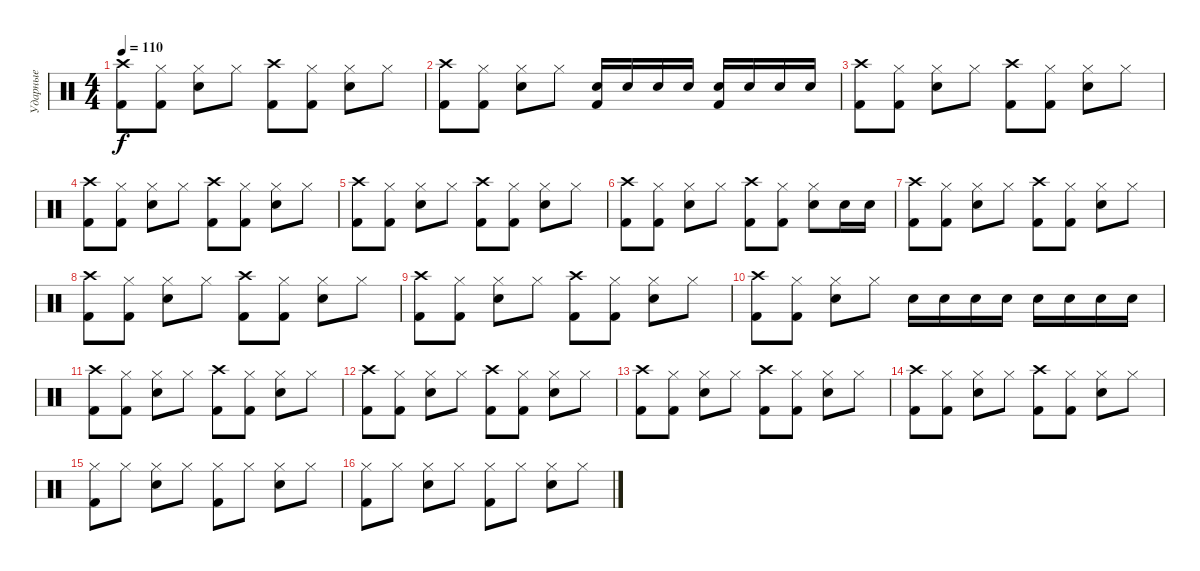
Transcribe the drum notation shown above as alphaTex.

\track ("Ударные" "Ударные") {instrument percussion}
\staff {score}
\articulation defaults
\ts (4 4)
\tempo 110
\clef neutral
\ks c
("Crash high (hit)" "Kick (hit) 2").8{dy f} ("Hi-Hat (closed)" "Kick (hit) 2").8 ("Hi-Hat (closed)" "Snare (hit) 2").8 "Hi-Hat (closed)".8 ("Crash high (hit)" "Kick (hit) 2").8 ("Hi-Hat (closed)" "Kick (hit) 2").8 ("Hi-Hat (closed)" "Snare (hit) 2").8 "Hi-Hat (closed)".8 |
("Crash high (hit)" "Kick (hit) 2").8 ("Hi-Hat (closed)" "Kick (hit) 2").8 ("Hi-Hat (closed)" "Snare (hit) 2").8 "Hi-Hat (closed)".8 ("Snare (hit) 2" "Kick (hit) 2").16 "Snare (hit) 2".16 "Snare (hit) 2".16 "Snare (hit) 2".16 ("Snare (hit) 2" "Kick (hit) 2").16 "Snare (hit) 2".16 "Snare (hit) 2".16 "Snare (hit) 2".16 |
("Crash high (hit)" "Kick (hit) 2").8 ("Hi-Hat (closed)" "Kick (hit) 2").8 ("Hi-Hat (closed)" "Snare (hit) 2").8 "Hi-Hat (closed)".8 ("Crash high (hit)" "Kick (hit) 2").8 ("Hi-Hat (closed)" "Kick (hit) 2").8 ("Hi-Hat (closed)" "Snare (hit) 2").8 "Hi-Hat (closed)".8 |
("Crash high (hit)" "Kick (hit) 2").8 ("Hi-Hat (closed)" "Kick (hit) 2").8 ("Hi-Hat (closed)" "Snare (hit) 2").8 "Hi-Hat (closed)".8 ("Crash high (hit)" "Kick (hit) 2").8 ("Hi-Hat (closed)" "Kick (hit) 2").8 ("Hi-Hat (closed)" "Snare (hit) 2").8 "Hi-Hat (closed)".8 |
("Crash high (hit)" "Kick (hit) 2").8 ("Hi-Hat (closed)" "Kick (hit) 2").8 ("Hi-Hat (closed)" "Snare (hit) 2").8 "Hi-Hat (closed)".8 ("Crash high (hit)" "Kick (hit) 2").8 ("Hi-Hat (closed)" "Kick (hit) 2").8 ("Hi-Hat (closed)" "Snare (hit) 2").8 "Hi-Hat (closed)".8 |
("Crash high (hit)" "Kick (hit) 2").8 ("Hi-Hat (closed)" "Kick (hit) 2").8 ("Hi-Hat (closed)" "Snare (hit) 2").8 "Hi-Hat (closed)".8 ("Crash high (hit)" "Kick (hit) 2").8 ("Hi-Hat (closed)" "Kick (hit) 2").8 ("Hi-Hat (closed)" "Snare (hit) 2").8 "Snare (hit) 2".16 "Snare (hit) 2".16 |
("Crash high (hit)" "Kick (hit) 2").8 ("Hi-Hat (closed)" "Kick (hit) 2").8 ("Hi-Hat (closed)" "Snare (hit) 2").8 "Hi-Hat (closed)".8 ("Crash high (hit)" "Kick (hit) 2").8 ("Hi-Hat (closed)" "Kick (hit) 2").8 ("Hi-Hat (closed)" "Snare (hit) 2").8 "Hi-Hat (closed)".8 |
("Crash high (hit)" "Kick (hit) 2").8 ("Hi-Hat (closed)" "Kick (hit) 2").8 ("Hi-Hat (closed)" "Snare (hit) 2").8 "Hi-Hat (closed)".8 ("Crash high (hit)" "Kick (hit) 2").8 ("Hi-Hat (closed)" "Kick (hit) 2").8 ("Hi-Hat (closed)" "Snare (hit) 2").8 "Hi-Hat (closed)".8 |
("Crash high (hit)" "Kick (hit) 2").8 ("Hi-Hat (closed)" "Kick (hit) 2").8 ("Hi-Hat (closed)" "Snare (hit) 2").8 "Hi-Hat (closed)".8 ("Crash high (hit)" "Kick (hit) 2").8 ("Hi-Hat (closed)" "Kick (hit) 2").8 ("Hi-Hat (closed)" "Snare (hit) 2").8 "Hi-Hat (closed)".8 |
("Crash high (hit)" "Kick (hit) 2").8 ("Hi-Hat (closed)" "Kick (hit) 2").8 ("Hi-Hat (closed)" "Snare (hit) 2").8 "Hi-Hat (closed)".8 "Snare (hit) 2".16 "Snare (hit) 2".16 "Snare (hit) 2".16 "Snare (hit) 2".16 "Snare (hit) 2".16 "Snare (hit) 2".16 "Snare (hit) 2".16 "Snare (hit) 2".16 |
("Crash high (hit)" "Kick (hit) 2").8 ("Hi-Hat (closed)" "Kick (hit) 2").8 ("Hi-Hat (closed)" "Snare (hit) 2").8 "Hi-Hat (closed)".8 ("Crash high (hit)" "Kick (hit) 2").8 ("Hi-Hat (closed)" "Kick (hit) 2").8 ("Hi-Hat (closed)" "Snare (hit) 2").8 "Hi-Hat (closed)".8 |
("Crash high (hit)" "Kick (hit) 2").8 ("Hi-Hat (closed)" "Kick (hit) 2").8 ("Hi-Hat (closed)" "Snare (hit) 2").8 "Hi-Hat (closed)".8 ("Crash high (hit)" "Kick (hit) 2").8 ("Hi-Hat (closed)" "Kick (hit) 2").8 ("Hi-Hat (closed)" "Snare (hit) 2").8 "Hi-Hat (closed)".8 |
("Crash high (hit)" "Kick (hit) 2").8 ("Hi-Hat (closed)" "Kick (hit) 2").8 ("Hi-Hat (closed)" "Snare (hit) 2").8 "Hi-Hat (closed)".8 ("Crash high (hit)" "Kick (hit) 2").8 ("Hi-Hat (closed)" "Kick (hit) 2").8 ("Hi-Hat (closed)" "Snare (hit) 2").8 "Hi-Hat (closed)".8 |
("Crash high (hit)" "Kick (hit) 2").8 ("Hi-Hat (closed)" "Kick (hit) 2").8 ("Hi-Hat (closed)" "Snare (hit) 2").8 "Hi-Hat (closed)".8 ("Crash high (hit)" "Kick (hit) 2").8 ("Hi-Hat (closed)" "Kick (hit) 2").8 ("Hi-Hat (closed)" "Snare (hit) 2").8 "Hi-Hat (closed)".8 |
("Hi-Hat (closed)" "Kick (hit) 2").8{volume 11} "Hi-Hat (closed)".8 ("Hi-Hat (closed)" "Snare (hit) 2").8 "Hi-Hat (closed)".8 ("Hi-Hat (closed)" "Kick (hit) 2").8 "Hi-Hat (closed)".8 ("Hi-Hat (closed)" "Snare (hit) 2").8 "Hi-Hat (closed)".8 |
("Hi-Hat (closed)" "Kick (hit) 2").8 "Hi-Hat (closed)".8 ("Hi-Hat (closed)" "Snare (hit) 2").8 "Hi-Hat (closed)".8 ("Hi-Hat (closed)" "Kick (hit) 2").8 "Hi-Hat (closed)".8 ("Hi-Hat (closed)" "Snare (hit) 2").8 "Hi-Hat (closed)".8
